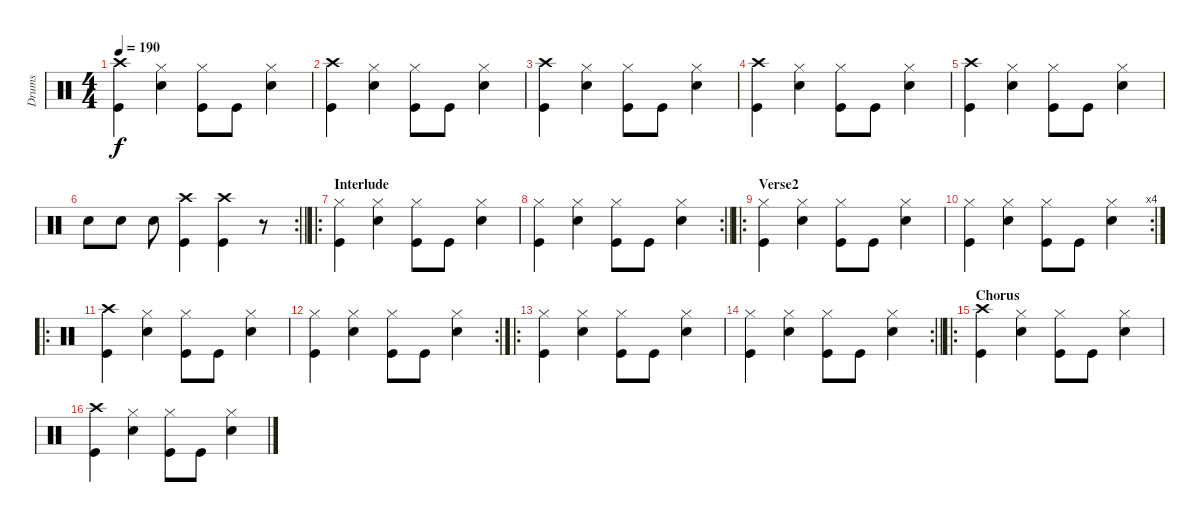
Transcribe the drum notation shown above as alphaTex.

\track ("Drums" "Drums") {instrument percussion}
\staff {score}
\articulation defaults
\ts (4 4)
\tempo 190
\clef neutral
\ks c
("Crash high (hit)" "Kick (hit)").4{dy f} ("Hi-Hat (closed)" "Snare (hit) 2").4 ("Hi-Hat (closed)" "Kick (hit)").8 "Kick (hit)".8 ("Hi-Hat (closed)" "Snare (hit) 2").4 |
("Crash high (hit)" "Kick (hit)").4 ("Hi-Hat (closed)" "Snare (hit) 2").4 ("Hi-Hat (closed)" "Kick (hit)").8 "Kick (hit)".8 ("Hi-Hat (closed)" "Snare (hit) 2").4 |
("Crash high (hit)" "Kick (hit)").4 ("Hi-Hat (closed)" "Snare (hit) 2").4 ("Hi-Hat (closed)" "Kick (hit)").8 "Kick (hit)".8 ("Hi-Hat (closed)" "Snare (hit) 2").4 |
("Crash high (hit)" "Kick (hit)").4 ("Hi-Hat (closed)" "Snare (hit) 2").4 ("Hi-Hat (closed)" "Kick (hit)").8 "Kick (hit)".8 ("Hi-Hat (closed)" "Snare (hit) 2").4 |
("Crash high (hit)" "Kick (hit)").4 ("Hi-Hat (closed)" "Snare (hit) 2").4 ("Hi-Hat (closed)" "Kick (hit)").8 "Kick (hit)".8 ("Hi-Hat (closed)" "Snare (hit) 2").4 |
\rc 2
\barLineRight lightlight "Snare (hit) 2".8 "Snare (hit) 2".8 "Snare (hit) 2".8
("Crash high (hit)" "Kick (hit)").4 ("Crash high (hit)" "Kick (hit)").4 r.8 |
\ro
\section ("" "Interlude")
("Hi-Hat (closed)" "Kick (hit)").4 ("Hi-Hat (closed)" "Snare (hit) 2").4 ("Hi-Hat (closed)" "Kick (hit)").8 "Kick (hit)".8 ("Hi-Hat (closed)" "Snare (hit) 2").4 |
\rc 2
\barLineRight lightlight
("Hi-Hat (closed)" "Kick (hit)").4 ("Hi-Hat (closed)" "Snare (hit) 2").4 ("Hi-Hat (closed)" "Kick (hit)").8 "Kick (hit)".8 ("Hi-Hat (closed)" "Snare (hit) 2").4 |
\ro
\section ("" "Verse2")
("Hi-Hat (closed)" "Kick (hit)").4 ("Hi-Hat (closed)" "Snare (hit) 2").4 ("Hi-Hat (closed)" "Kick (hit)").8 "Kick (hit)".8 ("Hi-Hat (closed)" "Snare (hit) 2").4 |
\rc 4
("Hi-Hat (closed)" "Kick (hit)").4 ("Hi-Hat (closed)" "Snare (hit) 2").4 ("Hi-Hat (closed)" "Kick (hit)").8 "Kick (hit)".8 ("Hi-Hat (closed)" "Snare (hit) 2").4 |
\ro
("Crash high (hit)" "Kick (hit)").4 ("Hi-Hat (closed)" "Snare (hit) 2").4 ("Hi-Hat (closed)" "Kick (hit)").8 "Kick (hit)".8 ("Hi-Hat (closed)" "Snare (hit) 2").4 |
\rc 2
("Hi-Hat (closed)" "Kick (hit)").4 ("Hi-Hat (closed)" "Snare (hit) 2").4 ("Hi-Hat (closed)" "Kick (hit)").8 "Kick (hit)".8 ("Hi-Hat (closed)" "Snare (hit) 2").4 |
\ro
("Hi-Hat (closed)" "Kick (hit)").4 ("Hi-Hat (closed)" "Snare (hit) 2").4 ("Hi-Hat (closed)" "Kick (hit)").8 "Kick (hit)".8 ("Hi-Hat (closed)" "Snare (hit) 2").4 |
\rc 2
\barLineRight lightlight
("Hi-Hat (closed)" "Kick (hit)").4 ("Hi-Hat (closed)" "Snare (hit) 2").4 ("Hi-Hat (closed)" "Kick (hit)").8 "Kick (hit)".8 ("Hi-Hat (closed)" "Snare (hit) 2").4 |
\ro
\section ("" "Chorus")
("Crash high (hit)" "Kick (hit)").4 ("Hi-Hat (closed)" "Snare (hit) 2").4 ("Hi-Hat (closed)" "Kick (hit)").8 "Kick (hit)".8 ("Hi-Hat (closed)" "Snare (hit) 2").4 |
("Crash high (hit)" "Kick (hit)").4 ("Hi-Hat (closed)" "Snare (hit) 2").4 ("Hi-Hat (closed)" "Kick (hit)").8 "Kick (hit)".8 ("Hi-Hat (closed)" "Snare (hit) 2").4
